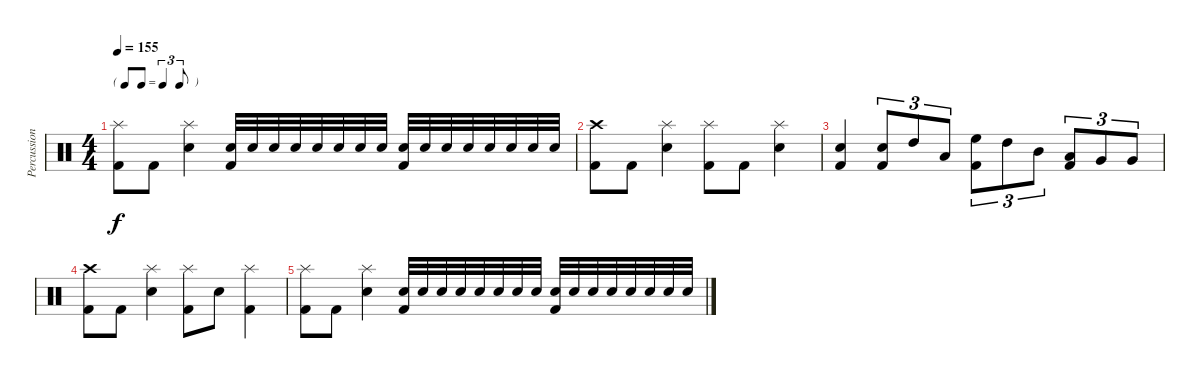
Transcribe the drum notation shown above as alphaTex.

\track ("Percussion" "Percussion") {instrument percussion}
\staff {score}
\articulation defaults
\ts (4 4)
\tf triplet8th
\tempo 155
\clef neutral
\ks c
("Kick (hit) 2" "Splash (hit)").8{dy f} "Kick (hit) 2".8 ("Snare (hit) 2" "Splash (hit)").4 ("Snare (hit) 2" "Kick (hit) 2").32 "Snare (hit) 2".32 "Snare (hit) 2".32 "Snare (hit) 2".32 "Snare (hit) 2".32 "Snare (hit) 2".32 "Snare (hit) 2".32 "Snare (hit) 2".32 ("Snare (hit) 2" "Kick (hit) 2").32 "Snare (hit) 2".32 "Snare (hit) 2".32 "Snare (hit) 2".32 "Snare (hit) 2".32 "Snare (hit) 2".32 "Snare (hit) 2".32 "Snare (hit) 2".32 |
("Kick (hit) 2" "Crash high (hit)").8 "Kick (hit) 2".8 ("Snare (hit) 2" "Splash (hit)").4 ("Kick (hit) 2" "Splash (hit)").8 "Kick (hit) 2".8 ("Snare (hit) 2" "Splash (hit)").4 |
("Snare (hit) 2" "Kick (hit) 2").4 ("Snare (hit) 2" "Kick (hit) 2").8{tu (3 2)} "High Tom (hit)".8{tu (3 2)} "Low Tom (hit)".8{tu (3 2)} ("Kick (hit) 2" "High Floor Tom (hit)").8{tu (3 2)} "High Tom (hit)".8{tu (3 2)} "Mid Tom (hit)".8{tu (3 2)} ("Kick (hit) 2" "Low Tom (hit)").8{tu (3 2)} "Very Low Tom (hit)".8{tu (3 2)} "Very Low Tom (hit)".8{tu (3 2)} |
("Kick (hit) 2" "Crash high (hit)").8 "Kick (hit) 2".8 ("Snare (hit) 2" "Splash (hit)").4 ("Kick (hit) 2" "Splash (hit)").8 "Snare (hit) 2".8 ("Kick (hit) 2" "Splash (hit)").4 |
("Kick (hit) 2" "Splash (hit)").8 "Kick (hit) 2".8 ("Snare (hit) 2" "Splash (hit)").4 ("Snare (hit) 2" "Kick (hit) 2").32 "Snare (hit) 2".32 "Snare (hit) 2".32 "Snare (hit) 2".32 "Snare (hit) 2".32 "Snare (hit) 2".32 "Snare (hit) 2".32 "Snare (hit) 2".32 ("Snare (hit) 2" "Kick (hit) 2").32 "Snare (hit) 2".32 "Snare (hit) 2".32 "Snare (hit) 2".32 "Snare (hit) 2".32 "Snare (hit) 2".32 "Snare (hit) 2".32 "Snare (hit) 2".32
